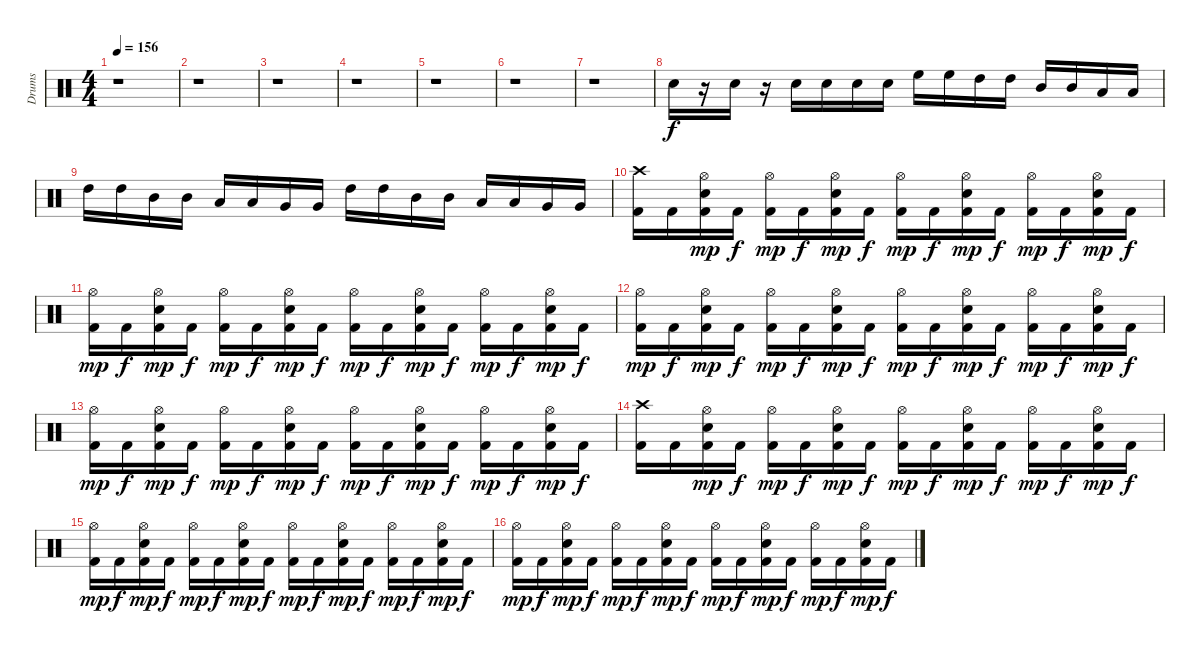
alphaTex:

\track ("Drums" "Drums") {instrument percussion}
\staff {score}
\articulation defaults
\ts (4 4)
\tempo 156
\clef neutral
\ks c
r.1{dy mp} |
r.1 |
r.1 |
r.1 |
r.1 |
r.1 |
r.1 |
"Snare (hit) 2".16{dy f} r.16 "Snare (hit) 2".16 r.16 "Snare (hit) 2".16 "Snare (hit) 2".16 "Snare (hit) 2".16 "Snare (hit) 2".16 "High Floor Tom (hit)".16 "High Floor Tom (hit)".16 "High Tom (hit)".16 "High Tom (hit)".16 "Mid Tom (hit)".16 "Mid Tom (hit)".16 "Low Tom (hit)".16 "Low Tom (hit)".16 |
"High Tom (hit)".16 "High Tom (hit)".16 "Mid Tom (hit)".16 "Mid Tom (hit)".16 "Low Tom (hit)".16 "Low Tom (hit)".16 "Very Low Tom (hit)".16 "Very Low Tom (hit)".16 "High Tom (hit)".16 "High Tom (hit)".16 "Mid Tom (hit)".16 "Mid Tom (hit)".16 "Low Tom (hit)".16 "Low Tom (hit)".16 "Very Low Tom (hit)".16 "Very Low Tom (hit)".16 |
\section ("" "")
("Kick (hit) 2" "Crash high (hit)").16 "Kick (hit) 2".16 ("Snare (hit) 2" "Kick (hit) 2" "Hi-Hat (open)").16{dy mp} "Kick (hit) 2".16{dy f} ("Kick (hit) 2" "Hi-Hat (open)").16{dy mp} "Kick (hit) 2".16{dy f} ("Snare (hit) 2" "Kick (hit) 2" "Hi-Hat (open)").16{dy mp} "Kick (hit) 2".16{dy f} ("Kick (hit) 2" "Hi-Hat (open)").16{dy mp} "Kick (hit) 2".16{dy f} ("Snare (hit) 2" "Kick (hit) 2" "Hi-Hat (open)").16{dy mp} "Kick (hit) 2".16{dy f} ("Kick (hit) 2" "Hi-Hat (open)").16{dy mp} "Kick (hit) 2".16{dy f} ("Snare (hit) 2" "Kick (hit) 2" "Hi-Hat (open)").16{dy mp} "Kick (hit) 2".16{dy f} |
("Kick (hit) 2" "Hi-Hat (open)").16{dy mp} "Kick (hit) 2".16{dy f} ("Snare (hit) 2" "Kick (hit) 2" "Hi-Hat (open)").16{dy mp} "Kick (hit) 2".16{dy f} ("Kick (hit) 2" "Hi-Hat (open)").16{dy mp} "Kick (hit) 2".16{dy f} ("Snare (hit) 2" "Kick (hit) 2" "Hi-Hat (open)").16{dy mp} "Kick (hit) 2".16{dy f} ("Kick (hit) 2" "Hi-Hat (open)").16{dy mp} "Kick (hit) 2".16{dy f} ("Snare (hit) 2" "Kick (hit) 2" "Hi-Hat (open)").16{dy mp} "Kick (hit) 2".16{dy f} ("Kick (hit) 2" "Hi-Hat (open)").16{dy mp} "Kick (hit) 2".16{dy f} ("Snare (hit) 2" "Kick (hit) 2" "Hi-Hat (open)").16{dy mp} "Kick (hit) 2".16{dy f} |
("Kick (hit) 2" "Hi-Hat (open)").16{dy mp} "Kick (hit) 2".16{dy f} ("Snare (hit) 2" "Kick (hit) 2" "Hi-Hat (open)").16{dy mp} "Kick (hit) 2".16{dy f} ("Kick (hit) 2" "Hi-Hat (open)").16{dy mp} "Kick (hit) 2".16{dy f} ("Snare (hit) 2" "Kick (hit) 2" "Hi-Hat (open)").16{dy mp} "Kick (hit) 2".16{dy f} ("Kick (hit) 2" "Hi-Hat (open)").16{dy mp} "Kick (hit) 2".16{dy f} ("Snare (hit) 2" "Kick (hit) 2" "Hi-Hat (open)").16{dy mp} "Kick (hit) 2".16{dy f} ("Kick (hit) 2" "Hi-Hat (open)").16{dy mp} "Kick (hit) 2".16{dy f} ("Snare (hit) 2" "Kick (hit) 2" "Hi-Hat (open)").16{dy mp} "Kick (hit) 2".16{dy f} |
("Kick (hit) 2" "Hi-Hat (open)").16{dy mp} "Kick (hit) 2".16{dy f} ("Snare (hit) 2" "Kick (hit) 2" "Hi-Hat (open)").16{dy mp} "Kick (hit) 2".16{dy f} ("Kick (hit) 2" "Hi-Hat (open)").16{dy mp} "Kick (hit) 2".16{dy f} ("Snare (hit) 2" "Kick (hit) 2" "Hi-Hat (open)").16{dy mp} "Kick (hit) 2".16{dy f} ("Kick (hit) 2" "Hi-Hat (open)").16{dy mp} "Kick (hit) 2".16{dy f} ("Snare (hit) 2" "Kick (hit) 2" "Hi-Hat (open)").16{dy mp} "Kick (hit) 2".16{dy f} ("Kick (hit) 2" "Hi-Hat (open)").16{dy mp} "Kick (hit) 2".16{dy f} ("Snare (hit) 2" "Kick (hit) 2" "Hi-Hat (open)").16{dy mp} "Kick (hit) 2".16{dy f} |
("Kick (hit) 2" "Crash high (hit)").16 "Kick (hit) 2".16 ("Snare (hit) 2" "Kick (hit) 2" "Hi-Hat (open)").16{dy mp} "Kick (hit) 2".16{dy f} ("Kick (hit) 2" "Hi-Hat (open)").16{dy mp} "Kick (hit) 2".16{dy f} ("Snare (hit) 2" "Kick (hit) 2" "Hi-Hat (open)").16{dy mp} "Kick (hit) 2".16{dy f} ("Kick (hit) 2" "Hi-Hat (open)").16{dy mp} "Kick (hit) 2".16{dy f} ("Snare (hit) 2" "Kick (hit) 2" "Hi-Hat (open)").16{dy mp} "Kick (hit) 2".16{dy f} ("Kick (hit) 2" "Hi-Hat (open)").16{dy mp} "Kick (hit) 2".16{dy f} ("Snare (hit) 2" "Kick (hit) 2" "Hi-Hat (open)").16{dy mp} "Kick (hit) 2".16{dy f} |
("Kick (hit) 2" "Hi-Hat (open)").16{dy mp} "Kick (hit) 2".16{dy f} ("Snare (hit) 2" "Kick (hit) 2" "Hi-Hat (open)").16{dy mp} "Kick (hit) 2".16{dy f} ("Kick (hit) 2" "Hi-Hat (open)").16{dy mp} "Kick (hit) 2".16{dy f} ("Snare (hit) 2" "Kick (hit) 2" "Hi-Hat (open)").16{dy mp} "Kick (hit) 2".16{dy f} ("Kick (hit) 2" "Hi-Hat (open)").16{dy mp} "Kick (hit) 2".16{dy f} ("Snare (hit) 2" "Kick (hit) 2" "Hi-Hat (open)").16{dy mp} "Kick (hit) 2".16{dy f} ("Kick (hit) 2" "Hi-Hat (open)").16{dy mp} "Kick (hit) 2".16{dy f} ("Snare (hit) 2" "Kick (hit) 2" "Hi-Hat (open)").16{dy mp} "Kick (hit) 2".16{dy f} |
("Kick (hit) 2" "Hi-Hat (open)").16{dy mp} "Kick (hit) 2".16{dy f} ("Snare (hit) 2" "Kick (hit) 2" "Hi-Hat (open)").16{dy mp} "Kick (hit) 2".16{dy f} ("Kick (hit) 2" "Hi-Hat (open)").16{dy mp} "Kick (hit) 2".16{dy f} ("Snare (hit) 2" "Kick (hit) 2" "Hi-Hat (open)").16{dy mp} "Kick (hit) 2".16{dy f} ("Kick (hit) 2" "Hi-Hat (open)").16{dy mp} "Kick (hit) 2".16{dy f} ("Snare (hit) 2" "Kick (hit) 2" "Hi-Hat (open)").16{dy mp} "Kick (hit) 2".16{dy f} ("Kick (hit) 2" "Hi-Hat (open)").16{dy mp} "Kick (hit) 2".16{dy f} ("Snare (hit) 2" "Kick (hit) 2" "Hi-Hat (open)").16{dy mp} "Kick (hit) 2".16{dy f}
